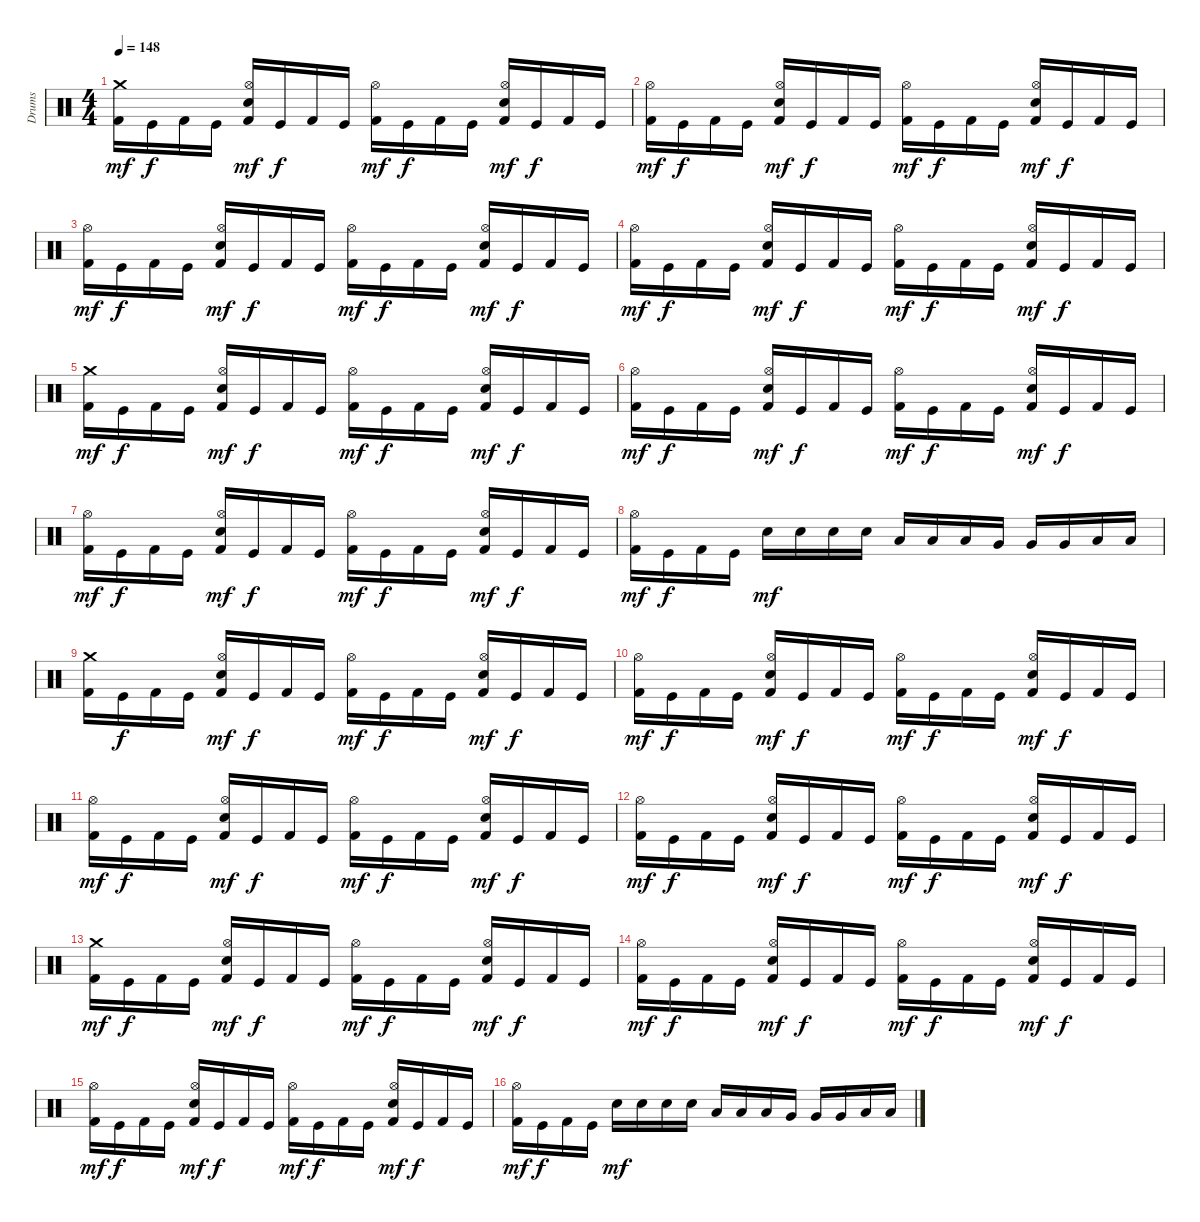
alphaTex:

\track ("Drums" "Drums") {instrument percussion}
\staff
\articulation defaults
\ts (4 4)
\tempo 148
\clef neutral
\ks c
("Crash medium (hit)" "Kick (hit) 2").16{dy mf} "Kick (hit)".16{dy f} "Kick (hit) 2".16 "Kick (hit)".16 ("Hi-Hat (open)" "Snare (hit) 2" "Kick (hit) 2").16{dy mf} "Kick (hit)".16{dy f} "Kick (hit) 2".16 "Kick (hit)".16 ("Hi-Hat (open)" "Kick (hit) 2").16{dy mf} "Kick (hit)".16{dy f} "Kick (hit) 2".16 "Kick (hit)".16 ("Hi-Hat (open)" "Snare (hit) 2" "Kick (hit) 2").16{dy mf} "Kick (hit)".16{dy f} "Kick (hit) 2".16 "Kick (hit)".16 |
("Hi-Hat (open)" "Kick (hit) 2").16{dy mf} "Kick (hit)".16{dy f} "Kick (hit) 2".16 "Kick (hit)".16 ("Hi-Hat (open)" "Snare (hit) 2" "Kick (hit) 2").16{dy mf} "Kick (hit)".16{dy f} "Kick (hit) 2".16 "Kick (hit)".16 ("Hi-Hat (open)" "Kick (hit) 2").16{dy mf} "Kick (hit)".16{dy f} "Kick (hit) 2".16 "Kick (hit)".16 ("Hi-Hat (open)" "Snare (hit) 2" "Kick (hit) 2").16{dy mf} "Kick (hit)".16{dy f} "Kick (hit) 2".16 "Kick (hit)".16 |
("Hi-Hat (open)" "Kick (hit) 2").16{dy mf} "Kick (hit)".16{dy f} "Kick (hit) 2".16 "Kick (hit)".16 ("Hi-Hat (open)" "Snare (hit) 2" "Kick (hit) 2").16{dy mf} "Kick (hit)".16{dy f} "Kick (hit) 2".16 "Kick (hit)".16 ("Hi-Hat (open)" "Kick (hit) 2").16{dy mf} "Kick (hit)".16{dy f} "Kick (hit) 2".16 "Kick (hit)".16 ("Hi-Hat (open)" "Snare (hit) 2" "Kick (hit) 2").16{dy mf} "Kick (hit)".16{dy f} "Kick (hit) 2".16 "Kick (hit)".16 |
("Hi-Hat (open)" "Kick (hit) 2").16{dy mf} "Kick (hit)".16{dy f} "Kick (hit) 2".16 "Kick (hit)".16 ("Hi-Hat (open)" "Snare (hit) 2" "Kick (hit) 2").16{dy mf} "Kick (hit)".16{dy f} "Kick (hit) 2".16 "Kick (hit)".16 ("Hi-Hat (open)" "Kick (hit) 2").16{dy mf} "Kick (hit)".16{dy f} "Kick (hit) 2".16 "Kick (hit)".16 ("Hi-Hat (open)" "Snare (hit) 2" "Kick (hit) 2").16{dy mf} "Kick (hit)".16{dy f} "Kick (hit) 2".16 "Kick (hit)".16 |
("Crash medium (hit)" "Kick (hit) 2").16{dy mf} "Kick (hit)".16{dy f} "Kick (hit) 2".16 "Kick (hit)".16 ("Hi-Hat (open)" "Snare (hit) 2" "Kick (hit) 2").16{dy mf} "Kick (hit)".16{dy f} "Kick (hit) 2".16 "Kick (hit)".16 ("Hi-Hat (open)" "Kick (hit) 2").16{dy mf} "Kick (hit)".16{dy f} "Kick (hit) 2".16 "Kick (hit)".16 ("Hi-Hat (open)" "Snare (hit) 2" "Kick (hit) 2").16{dy mf} "Kick (hit)".16{dy f} "Kick (hit) 2".16 "Kick (hit)".16 |
("Hi-Hat (open)" "Kick (hit) 2").16{dy mf} "Kick (hit)".16{dy f} "Kick (hit) 2".16 "Kick (hit)".16 ("Hi-Hat (open)" "Snare (hit) 2" "Kick (hit) 2").16{dy mf} "Kick (hit)".16{dy f} "Kick (hit) 2".16 "Kick (hit)".16 ("Hi-Hat (open)" "Kick (hit) 2").16{dy mf} "Kick (hit)".16{dy f} "Kick (hit) 2".16 "Kick (hit)".16 ("Hi-Hat (open)" "Snare (hit) 2" "Kick (hit) 2").16{dy mf} "Kick (hit)".16{dy f} "Kick (hit) 2".16 "Kick (hit)".16 |
("Hi-Hat (open)" "Kick (hit) 2").16{dy mf} "Kick (hit)".16{dy f} "Kick (hit) 2".16 "Kick (hit)".16 ("Hi-Hat (open)" "Snare (hit) 2" "Kick (hit) 2").16{dy mf} "Kick (hit)".16{dy f} "Kick (hit) 2".16 "Kick (hit)".16 ("Hi-Hat (open)" "Kick (hit) 2").16{dy mf} "Kick (hit)".16{dy f} "Kick (hit) 2".16 "Kick (hit)".16 ("Hi-Hat (open)" "Snare (hit) 2" "Kick (hit) 2").16{dy mf} "Kick (hit)".16{dy f} "Kick (hit) 2".16 "Kick (hit)".16 |
("Hi-Hat (open)" "Kick (hit) 2").16{dy mf} "Kick (hit)".16{dy f} "Kick (hit) 2".16 "Kick (hit)".16 "Snare (hit) 2".16{dy mf} "Snare (hit) 2".16 "Snare (hit) 2".16 "Snare (hit) 2".16 "Low Tom (hit)".16 "Low Tom (hit)".16 "Low Tom (hit)".16 "Very Low Tom (hit)".16 "Very Low Tom (hit)".16 "Very Low Tom (hit)".16 "Low Floor Tom (hit)".16 "Low Floor Tom (hit)".16 |
("Crash medium (hit)" "Kick (hit) 2").16 "Kick (hit)".16{dy f} "Kick (hit) 2".16 "Kick (hit)".16 ("Hi-Hat (open)" "Snare (hit) 2" "Kick (hit) 2").16{dy mf} "Kick (hit)".16{dy f} "Kick (hit) 2".16 "Kick (hit)".16 ("Hi-Hat (open)" "Kick (hit) 2").16{dy mf} "Kick (hit)".16{dy f} "Kick (hit) 2".16 "Kick (hit)".16 ("Hi-Hat (open)" "Snare (hit) 2" "Kick (hit) 2").16{dy mf} "Kick (hit)".16{dy f} "Kick (hit) 2".16 "Kick (hit)".16 |
("Hi-Hat (open)" "Kick (hit) 2").16{dy mf} "Kick (hit)".16{dy f} "Kick (hit) 2".16 "Kick (hit)".16 ("Hi-Hat (open)" "Snare (hit) 2" "Kick (hit) 2").16{dy mf} "Kick (hit)".16{dy f} "Kick (hit) 2".16 "Kick (hit)".16 ("Hi-Hat (open)" "Kick (hit) 2").16{dy mf} "Kick (hit)".16{dy f} "Kick (hit) 2".16 "Kick (hit)".16 ("Hi-Hat (open)" "Snare (hit) 2" "Kick (hit) 2").16{dy mf} "Kick (hit)".16{dy f} "Kick (hit) 2".16 "Kick (hit)".16 |
("Hi-Hat (open)" "Kick (hit) 2").16{dy mf} "Kick (hit)".16{dy f} "Kick (hit) 2".16 "Kick (hit)".16 ("Hi-Hat (open)" "Snare (hit) 2" "Kick (hit) 2").16{dy mf} "Kick (hit)".16{dy f} "Kick (hit) 2".16 "Kick (hit)".16 ("Hi-Hat (open)" "Kick (hit) 2").16{dy mf} "Kick (hit)".16{dy f} "Kick (hit) 2".16 "Kick (hit)".16 ("Hi-Hat (open)" "Snare (hit) 2" "Kick (hit) 2").16{dy mf} "Kick (hit)".16{dy f} "Kick (hit) 2".16 "Kick (hit)".16 |
("Hi-Hat (open)" "Kick (hit) 2").16{dy mf} "Kick (hit)".16{dy f} "Kick (hit) 2".16 "Kick (hit)".16 ("Hi-Hat (open)" "Snare (hit) 2" "Kick (hit) 2").16{dy mf} "Kick (hit)".16{dy f} "Kick (hit) 2".16 "Kick (hit)".16 ("Hi-Hat (open)" "Kick (hit) 2").16{dy mf} "Kick (hit)".16{dy f} "Kick (hit) 2".16 "Kick (hit)".16 ("Hi-Hat (open)" "Snare (hit) 2" "Kick (hit) 2").16{dy mf} "Kick (hit)".16{dy f} "Kick (hit) 2".16 "Kick (hit)".16 |
("Crash medium (hit)" "Kick (hit) 2").16{dy mf} "Kick (hit)".16{dy f} "Kick (hit) 2".16 "Kick (hit)".16 ("Hi-Hat (open)" "Snare (hit) 2" "Kick (hit) 2").16{dy mf} "Kick (hit)".16{dy f} "Kick (hit) 2".16 "Kick (hit)".16 ("Hi-Hat (open)" "Kick (hit) 2").16{dy mf} "Kick (hit)".16{dy f} "Kick (hit) 2".16 "Kick (hit)".16 ("Hi-Hat (open)" "Snare (hit) 2" "Kick (hit) 2").16{dy mf} "Kick (hit)".16{dy f} "Kick (hit) 2".16 "Kick (hit)".16 |
("Hi-Hat (open)" "Kick (hit) 2").16{dy mf} "Kick (hit)".16{dy f} "Kick (hit) 2".16 "Kick (hit)".16 ("Hi-Hat (open)" "Snare (hit) 2" "Kick (hit) 2").16{dy mf} "Kick (hit)".16{dy f} "Kick (hit) 2".16 "Kick (hit)".16 ("Hi-Hat (open)" "Kick (hit) 2").16{dy mf} "Kick (hit)".16{dy f} "Kick (hit) 2".16 "Kick (hit)".16 ("Hi-Hat (open)" "Snare (hit) 2" "Kick (hit) 2").16{dy mf} "Kick (hit)".16{dy f} "Kick (hit) 2".16 "Kick (hit)".16 |
("Hi-Hat (open)" "Kick (hit) 2").16{dy mf} "Kick (hit)".16{dy f} "Kick (hit) 2".16 "Kick (hit)".16 ("Hi-Hat (open)" "Snare (hit) 2" "Kick (hit) 2").16{dy mf} "Kick (hit)".16{dy f} "Kick (hit) 2".16 "Kick (hit)".16 ("Hi-Hat (open)" "Kick (hit) 2").16{dy mf} "Kick (hit)".16{dy f} "Kick (hit) 2".16 "Kick (hit)".16 ("Hi-Hat (open)" "Snare (hit) 2" "Kick (hit) 2").16{dy mf} "Kick (hit)".16{dy f} "Kick (hit) 2".16 "Kick (hit)".16 |
("Hi-Hat (open)" "Kick (hit) 2").16{dy mf} "Kick (hit)".16{dy f} "Kick (hit) 2".16 "Kick (hit)".16 "Snare (hit) 2".16{dy mf} "Snare (hit) 2".16 "Snare (hit) 2".16 "Snare (hit) 2".16 "Low Tom (hit)".16 "Low Tom (hit)".16 "Low Tom (hit)".16 "Very Low Tom (hit)".16 "Very Low Tom (hit)".16 "Very Low Tom (hit)".16 "Low Floor Tom (hit)".16 "Low Floor Tom (hit)".16
